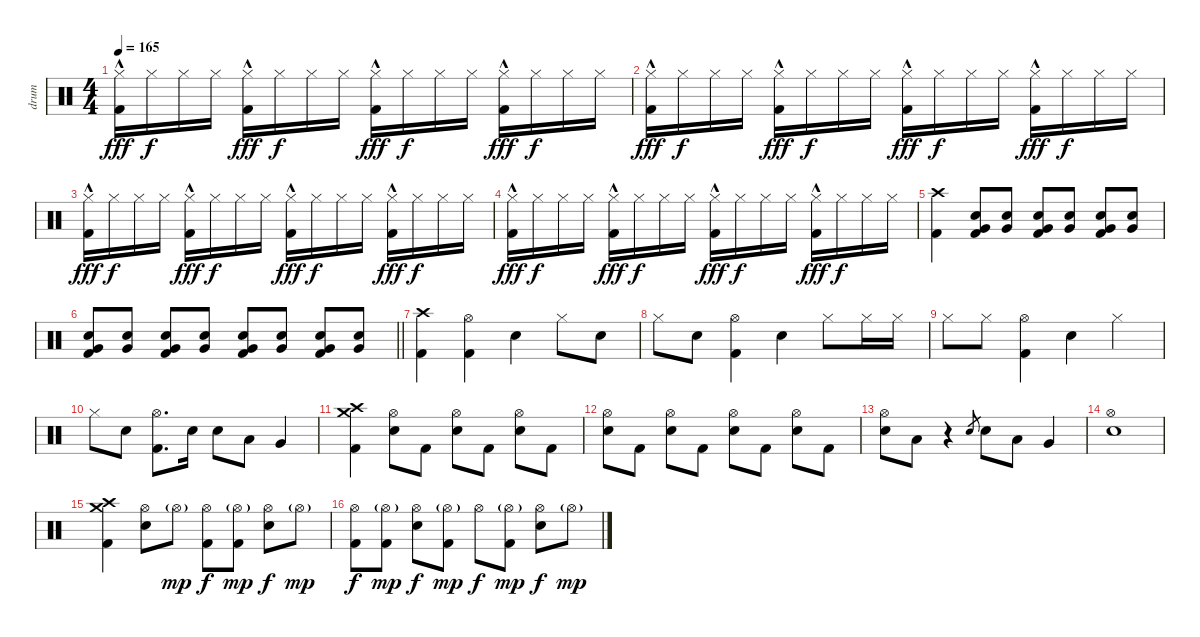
\track ("drum" "drum") {instrument percussion}
\staff {score}
\articulation defaults
\ts (4 4)
\tempo 165
\clef neutral
\ks c
("Hi-Hat (closed)"{hac} "Kick (hit) 2").16{dy fff} "Hi-Hat (closed)".16{dy f} "Hi-Hat (closed)".16 "Hi-Hat (closed)".16 ("Hi-Hat (closed)"{hac} "Kick (hit) 2").16{dy fff} "Hi-Hat (closed)".16{dy f} "Hi-Hat (closed)".16 "Hi-Hat (closed)".16 ("Hi-Hat (closed)"{hac} "Kick (hit) 2").16{dy fff} "Hi-Hat (closed)".16{dy f} "Hi-Hat (closed)".16 "Hi-Hat (closed)".16 ("Hi-Hat (closed)"{hac} "Kick (hit) 2").16{dy fff} "Hi-Hat (closed)".16{dy f} "Hi-Hat (closed)".16 "Hi-Hat (closed)".16 |
("Hi-Hat (closed)"{hac} "Kick (hit) 2").16{dy fff} "Hi-Hat (closed)".16{dy f} "Hi-Hat (closed)".16 "Hi-Hat (closed)".16 ("Hi-Hat (closed)"{hac} "Kick (hit) 2").16{dy fff} "Hi-Hat (closed)".16{dy f} "Hi-Hat (closed)".16 "Hi-Hat (closed)".16 ("Hi-Hat (closed)"{hac} "Kick (hit) 2").16{dy fff} "Hi-Hat (closed)".16{dy f} "Hi-Hat (closed)".16 "Hi-Hat (closed)".16 ("Hi-Hat (closed)"{hac} "Kick (hit) 2").16{dy fff} "Hi-Hat (closed)".16{dy f} "Hi-Hat (closed)".16 "Hi-Hat (closed)".16 |
("Hi-Hat (closed)"{hac} "Kick (hit) 2").16{dy fff} "Hi-Hat (closed)".16{dy f} "Hi-Hat (closed)".16 "Hi-Hat (closed)".16 ("Hi-Hat (closed)"{hac} "Kick (hit) 2").16{dy fff} "Hi-Hat (closed)".16{dy f} "Hi-Hat (closed)".16 "Hi-Hat (closed)".16 ("Hi-Hat (closed)"{hac} "Kick (hit) 2").16{dy fff} "Hi-Hat (closed)".16{dy f} "Hi-Hat (closed)".16 "Hi-Hat (closed)".16 ("Hi-Hat (closed)"{hac} "Kick (hit) 2").16{dy fff} "Hi-Hat (closed)".16{dy f} "Hi-Hat (closed)".16 "Hi-Hat (closed)".16 |
("Hi-Hat (closed)"{hac} "Kick (hit) 2").16{dy fff} "Hi-Hat (closed)".16{dy f} "Hi-Hat (closed)".16 "Hi-Hat (closed)".16 ("Hi-Hat (closed)"{hac} "Kick (hit) 2").16{dy fff} "Hi-Hat (closed)".16{dy f} "Hi-Hat (closed)".16 "Hi-Hat (closed)".16 ("Hi-Hat (closed)"{hac} "Kick (hit) 2").16{dy fff} "Hi-Hat (closed)".16{dy f} "Hi-Hat (closed)".16 "Hi-Hat (closed)".16 ("Hi-Hat (closed)"{hac} "Kick (hit) 2").16{dy fff} "Hi-Hat (closed)".16{dy f} "Hi-Hat (closed)".16 "Hi-Hat (closed)".16 |
("Crash high (hit)" "Kick (hit) 2").4 ("Very Low Tom (hit)" "Electric Snare (hit)" "Kick (hit) 2").8 ("Very Low Tom (hit)" "Electric Snare (hit)").8 ("Very Low Tom (hit)" "Electric Snare (hit)" "Kick (hit) 2").8 ("Very Low Tom (hit)" "Electric Snare (hit)").8 ("Very Low Tom (hit)" "Electric Snare (hit)" "Kick (hit) 2").8 ("Very Low Tom (hit)" "Electric Snare (hit)").8 |
\barLineRight lightlight
("Very Low Tom (hit)" "Electric Snare (hit)" "Kick (hit) 2").8 ("Very Low Tom (hit)" "Electric Snare (hit)").8 ("Very Low Tom (hit)" "Electric Snare (hit)" "Kick (hit) 2").8 ("Very Low Tom (hit)" "Electric Snare (hit)").8 ("Very Low Tom (hit)" "Electric Snare (hit)" "Kick (hit) 2").8 ("Very Low Tom (hit)" "Electric Snare (hit)").8 ("Very Low Tom (hit)" "Electric Snare (hit)" "Kick (hit) 2").8 ("Very Low Tom (hit)" "Electric Snare (hit)").8 |
("Crash high (hit)" "Kick (hit) 2").4 ("Hi-Hat (open)" "Kick (hit) 2").4 "Electric Snare (hit)".4 "Hi-Hat (closed)".8 "Electric Snare (hit)".8 |
"Hi-Hat (closed)".8 "Electric Snare (hit)".8 ("Hi-Hat (open)" "Kick (hit) 2").4 "Electric Snare (hit)".4 "Hi-Hat (closed)".8 "Hi-Hat (closed)".16 "Hi-Hat (closed)".16 |
"Hi-Hat (closed)".8 "Hi-Hat (closed)".8 ("Hi-Hat (open)" "Kick (hit) 2").4 "Electric Snare (hit)".4 "Hi-Hat (closed)".4 |
"Hi-Hat (closed)".8 "Electric Snare (hit)".8 ("Hi-Hat (open)" "Kick (hit) 2").8{d} "Electric Snare (hit)".16 "Electric Snare (hit)".8 "Low Tom (hit)".8 "Very Low Tom (hit)".4 |
("Crash high (hit)" "Crash medium (hit)" "Kick (hit) 2").4 ("Hi-Hat (open)" "Electric Snare (hit)").8 "Kick (hit) 2".8 ("Hi-Hat (open)" "Electric Snare (hit)").8 "Kick (hit) 2".8 ("Hi-Hat (open)" "Electric Snare (hit)").8 "Kick (hit) 2".8 |
("Hi-Hat (open)" "Electric Snare (hit)").8 "Kick (hit) 2".8 ("Hi-Hat (open)" "Electric Snare (hit)").8 "Kick (hit) 2".8 ("Hi-Hat (open)" "Electric Snare (hit)").8 "Kick (hit) 2".8 ("Hi-Hat (open)" "Electric Snare (hit)").8 "Kick (hit) 2".8 |
("Hi-Hat (open)" "Electric Snare (hit)").8 "Low Tom (hit)".8 r.4 "Electric Snare (hit)".8{gr} "Electric Snare (hit)".8 "Low Tom (hit)".8 "Very Low Tom (hit)".4 |
("Hi-Hat (open)" "Electric Snare (hit)").1 |
("Crash medium (hit)" "Crash high (hit)" "Kick (hit) 2").4 ("Hi-Hat (open)" "Electric Snare (hit)").8 "Hi-Hat (open)"{g}.8{dy mp} ("Hi-Hat (open)" "Kick (hit) 2").8{dy f} ("Hi-Hat (open)"{g} "Kick (hit) 2").8{dy mp} ("Hi-Hat (open)" "Electric Snare (hit)").8{dy f} "Hi-Hat (open)"{g}.8{dy mp} |
("Hi-Hat (open)" "Kick (hit) 2").8{dy f} ("Hi-Hat (open)"{g} "Kick (hit) 2").8{dy mp} ("Hi-Hat (open)" "Electric Snare (hit)").8{dy f} ("Hi-Hat (open)"{g} "Kick (hit) 2").8{dy mp} "Hi-Hat (open)".8{dy f} ("Hi-Hat (open)"{g} "Kick (hit) 2").8{dy mp} ("Hi-Hat (open)" "Electric Snare (hit)").8{dy f} "Hi-Hat (open)"{g}.8{dy mp}
